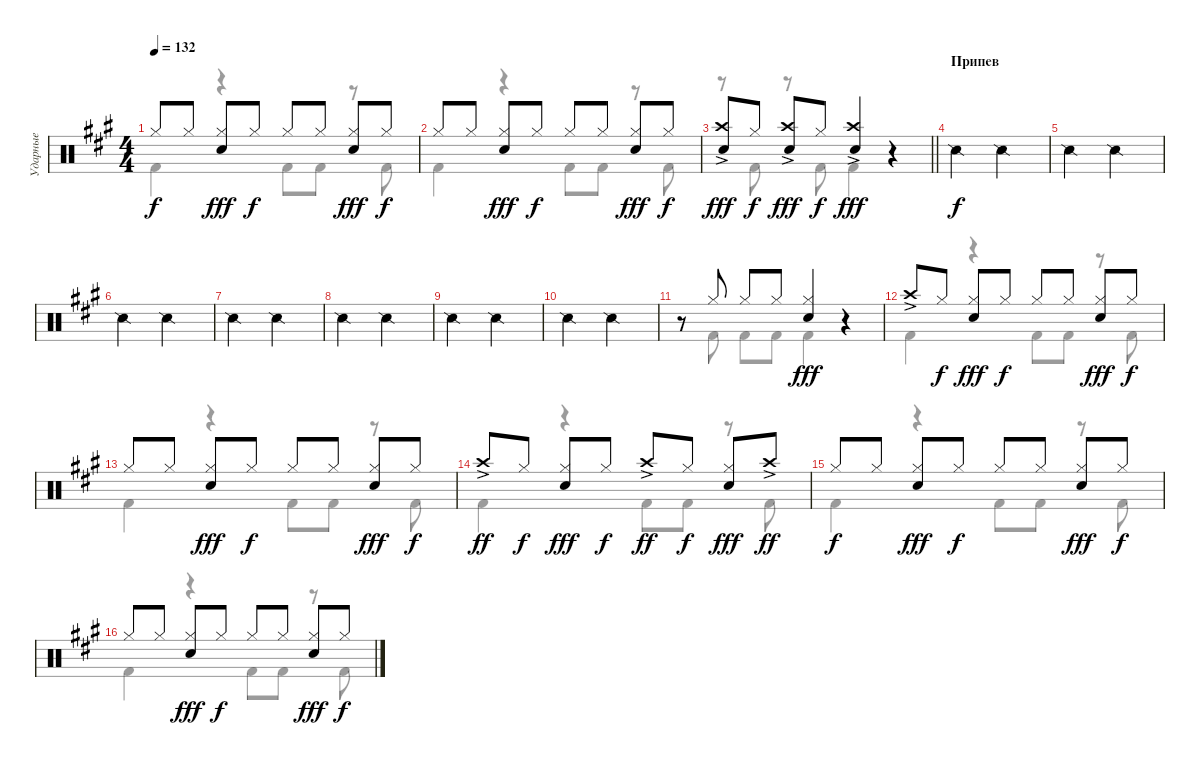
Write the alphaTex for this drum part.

\track ("Ударные" "Ударные") {instrument percussion}
\staff {score}
\articulation defaults
\voice
\ts (4 4)
\tempo 132
\clef neutral
\ks a "Hi-Hat (closed)".8{dy f} "Hi-Hat (closed)".8
("Electric Snare (hit)" "Hi-Hat (closed)").8{dy fff} "Hi-Hat (closed)".8{dy f} "Hi-Hat (closed)".8 "Hi-Hat (closed)".8 ("Electric Snare (hit)" "Hi-Hat (closed)").8{dy fff} "Hi-Hat (closed)".8{dy f} |
"Hi-Hat (closed)".8 "Hi-Hat (closed)".8 ("Electric Snare (hit)" "Hi-Hat (closed)").8{dy fff} "Hi-Hat (closed)".8{dy f} "Hi-Hat (closed)".8 "Hi-Hat (closed)".8 ("Electric Snare (hit)" "Hi-Hat (closed)").8{dy fff} "Hi-Hat (closed)".8{dy f} |
\barLineRight lightlight
("Crash high (hit)"{ac} "Electric Snare (hit)").8{dy fff} "Hi-Hat (closed)".8{dy f} ("Crash high (hit)"{ac} "Electric Snare (hit)").8{dy fff} "Hi-Hat (closed)".8{dy f} ("Crash high (hit)"{ac} "Electric Snare (hit)").4{dy fff} r.4 |
\section ("" "Припев")
"Snare (side stick) 2".2{dy f} "Snare (side stick) 2".2 |
"Snare (side stick) 2".2 "Snare (side stick) 2".2 |
"Snare (side stick) 2".2 "Snare (side stick) 2".2 |
"Snare (side stick) 2".2 "Snare (side stick) 2".2 |
"Snare (side stick) 2".2 "Snare (side stick) 2".2 |
"Snare (side stick) 2".2 "Snare (side stick) 2".2 |
"Snare (side stick) 2".2 "Snare (side stick) 2".2 |
r.8 "Hi-Hat (closed)".8 "Hi-Hat (closed)".8 "Hi-Hat (closed)".8 ("Hi-Hat (closed)" "Electric Snare (hit)").4{dy fff} r.4 |
"Crash high (hit)"{ac}.8 "Hi-Hat (closed)".8{dy f} ("Electric Snare (hit)" "Hi-Hat (closed)").8{dy fff} "Hi-Hat (closed)".8{dy f} "Hi-Hat (closed)".8 "Hi-Hat (closed)".8 ("Electric Snare (hit)" "Hi-Hat (closed)").8{dy fff} "Hi-Hat (closed)".8{dy f} |
"Hi-Hat (closed)".8 "Hi-Hat (closed)".8 ("Electric Snare (hit)" "Hi-Hat (closed)").8{dy fff} "Hi-Hat (closed)".8{dy f} "Hi-Hat (closed)".8 "Hi-Hat (closed)".8 ("Electric Snare (hit)" "Hi-Hat (closed)").8{dy fff} "Hi-Hat (closed)".8{dy f} |
"Crash high (hit)"{ac}.8{dy ff} "Hi-Hat (closed)".8{dy f} ("Electric Snare (hit)" "Hi-Hat (closed)").8{dy fff} "Hi-Hat (closed)".8{dy f} "Crash high (hit)"{ac}.8{dy ff} "Hi-Hat (closed)".8{dy f} ("Electric Snare (hit)" "Hi-Hat (closed)").8{dy fff} "Crash high (hit)"{ac}.8{dy ff} |
"Hi-Hat (closed)".8{dy f} "Hi-Hat (closed)".8 ("Electric Snare (hit)" "Hi-Hat (closed)").8{dy fff} "Hi-Hat (closed)".8{dy f} "Hi-Hat (closed)".8 "Hi-Hat (closed)".8 ("Electric Snare (hit)" "Hi-Hat (closed)").8{dy fff} "Hi-Hat (closed)".8{dy f} |
"Hi-Hat (closed)".8 "Hi-Hat (closed)".8 ("Electric Snare (hit)" "Hi-Hat (closed)").8{dy fff} "Hi-Hat (closed)".8{dy f} "Hi-Hat (closed)".8 "Hi-Hat (closed)".8 ("Electric Snare (hit)" "Hi-Hat (closed)").8{dy fff} "Hi-Hat (closed)".8{dy f}
\voice
\clef neutral
\ottava regular
\simile none
\ks a "Kick (hit) 2".4{dy f}
r.4 "Kick (hit) 2".8 "Kick (hit) 2".8 r.8 "Kick (hit) 2".8 |
"Kick (hit) 2".4 r.4 "Kick (hit) 2".8 "Kick (hit) 2".8 r.8 "Kick (hit) 2".8 |
\barLineRight lightlight
r.8 "Kick (hit) 2".8 r.8 "Kick (hit) 2".8 "Kick (hit) 2".4 r.4 |
|
|
|
|
|
|
|
r.8 "Kick (hit) 2".8 "Kick (hit) 2".8 "Kick (hit) 2".8 "Kick (hit) 2".4 r.4 |
"Kick (hit) 2".4 r.4 "Kick (hit) 2".8 "Kick (hit) 2".8 r.8 "Kick (hit) 2".8 |
"Kick (hit) 2".4 r.4 "Kick (hit) 2".8 "Kick (hit) 2".8 r.8 "Kick (hit) 2".8 |
"Kick (hit) 2".4 r.4 "Kick (hit) 2".8 "Kick (hit) 2".8 r.8 "Kick (hit) 2".8 |
"Kick (hit) 2".4 r.4 "Kick (hit) 2".8 "Kick (hit) 2".8 r.8 "Kick (hit) 2".8 |
"Kick (hit) 2".4 r.4 "Kick (hit) 2".8 "Kick (hit) 2".8 r.8 "Kick (hit) 2".8
